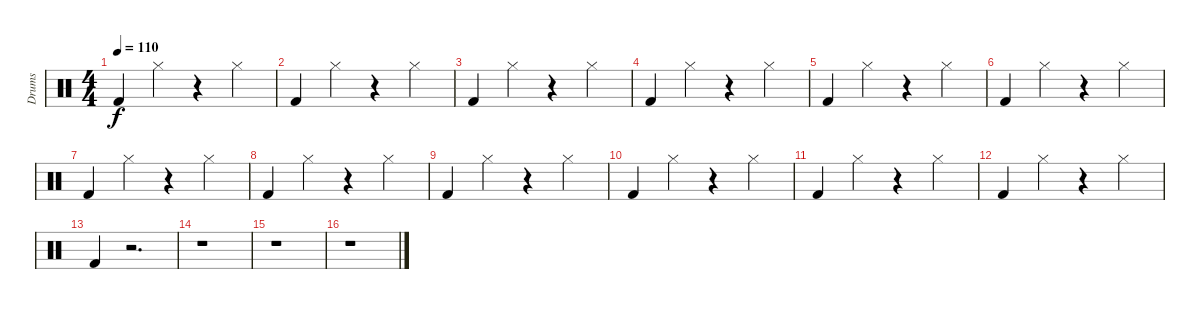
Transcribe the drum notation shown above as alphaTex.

\track ("Drums" "Drums") {instrument percussion}
\staff {score}
\articulation defaults
\ts (4 4)
\tempo 110
\clef neutral
\ks c "Kick (hit) 2".4{dy f} "Hi-Hat (closed)".4
r.4 "Hi-Hat (closed)".4 |
"Kick (hit) 2".4 "Hi-Hat (closed)".4 r.4 "Hi-Hat (closed)".4 |
"Kick (hit) 2".4 "Hi-Hat (closed)".4 r.4 "Hi-Hat (closed)".4 |
"Kick (hit) 2".4 "Hi-Hat (closed)".4 r.4 "Hi-Hat (closed)".4 |
"Kick (hit) 2".4 "Hi-Hat (closed)".4 r.4 "Hi-Hat (closed)".4 |
"Kick (hit) 2".4 "Hi-Hat (closed)".4 r.4 "Hi-Hat (closed)".4 |
"Kick (hit) 2".4 "Hi-Hat (closed)".4 r.4 "Hi-Hat (closed)".4 |
"Kick (hit) 2".4 "Hi-Hat (closed)".4 r.4 "Hi-Hat (closed)".4 |
"Kick (hit) 2".4 "Hi-Hat (closed)".4 r.4 "Hi-Hat (closed)".4 |
"Kick (hit) 2".4 "Hi-Hat (closed)".4 r.4 "Hi-Hat (closed)".4 |
"Kick (hit) 2".4 "Hi-Hat (closed)".4 r.4 "Hi-Hat (closed)".4 |
"Kick (hit) 2".4 "Hi-Hat (closed)".4 r.4 "Hi-Hat (closed)".4 |
"Kick (hit) 2".4 r.2{d} |
r.1 |
r.1 |
r.1
